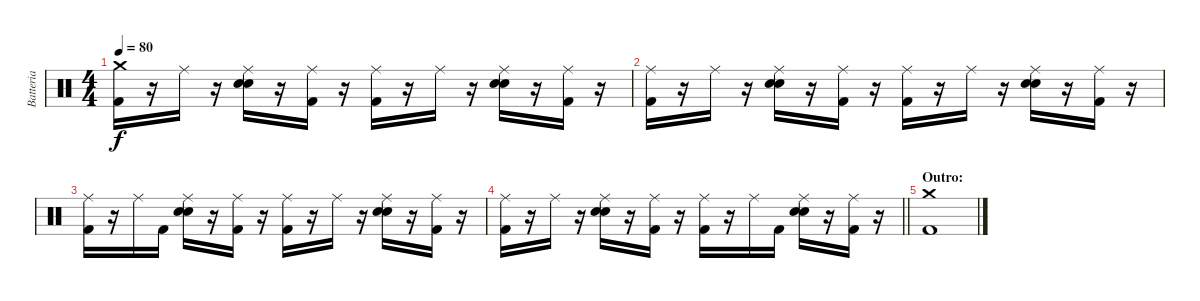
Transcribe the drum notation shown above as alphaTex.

\track ("Batteria" "Batteria") {instrument percussion}
\staff {score}
\articulation defaults
\ts (4 4)
\tempo 80
\clef neutral
\ks c
("Kick (hit) 2" "Crash medium (hit)").16{dy f} r.16 "Ride (middle)".16 r.16 ("Snare (hit) 2" "Snare (hit) 2" "Ride (middle)").16 r.16 ("Kick (hit) 2" "Ride (middle)").16 r.16 ("Kick (hit) 2" "Ride (middle)").16 r.16 "Ride (middle)".16 r.16 ("Snare (hit) 2" "Snare (hit) 2" "Ride (middle)").16 r.16 ("Kick (hit) 2" "Ride (middle)").16 r.16 |
("Kick (hit) 2" "Ride (middle)").16 r.16 "Ride (middle)".16 r.16 ("Snare (hit) 2" "Snare (hit) 2" "Ride (middle)").16 r.16 ("Kick (hit) 2" "Ride (middle)").16 r.16 ("Kick (hit) 2" "Ride (middle)").16 r.16 "Ride (middle)".16 r.16 ("Snare (hit) 2" "Snare (hit) 2" "Ride (middle)").16 r.16 ("Kick (hit) 2" "Ride (middle)").16 r.16 |
("Kick (hit) 2" "Ride (middle)").16 r.16 "Ride (middle)".16 "Kick (hit) 2".16 ("Snare (hit) 2" "Snare (hit) 2" "Ride (middle)").16 r.16 ("Kick (hit) 2" "Ride (middle)").16 r.16 ("Kick (hit) 2" "Ride (middle)").16 r.16 "Ride (middle)".16 r.16 ("Snare (hit) 2" "Snare (hit) 2" "Ride (middle)").16 r.16 ("Kick (hit) 2" "Ride (middle)").16 r.16 |
\barLineRight lightlight
("Kick (hit) 2" "Ride (middle)").16 r.16 "Ride (middle)".16 r.16 ("Snare (hit) 2" "Snare (hit) 2" "Ride (middle)").16 r.16 ("Kick (hit) 2" "Ride (middle)").16 r.16 ("Kick (hit) 2" "Ride (middle)").16 r.16 "Ride (middle)".16 "Kick (hit) 2".16 ("Snare (hit) 2" "Snare (hit) 2" "Ride (middle)").16 r.16 ("Kick (hit) 2" "Ride (middle)").16 r.16 |
\section ("" "Outro:")
("Kick (hit) 2" "Crash medium (hit)").1
